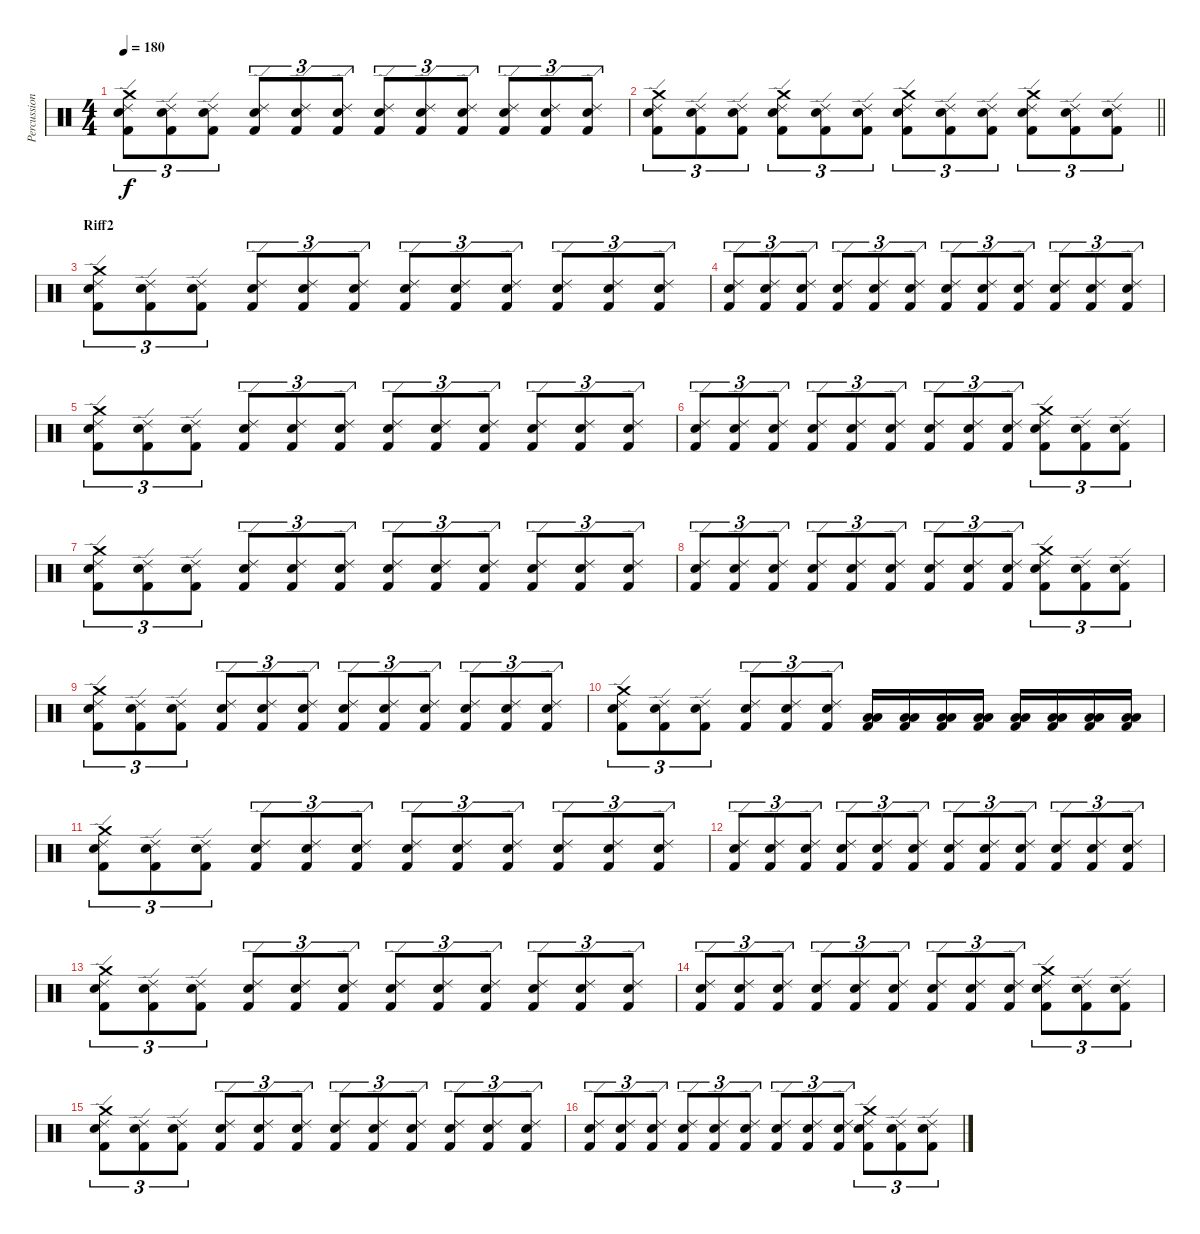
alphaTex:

\track ("Percussioni" "Percussion") {instrument percussion}
\staff {score}
\articulation defaults
\ts (4 4)
\tempo 180
\clef neutral
\ks c
("Crash medium (hit)" "Ride (edge) 2" "Snare (hit) 2" "Kick (hit) 2").8{tu (3 2) dy f} ("Ride (edge) 2" "Snare (hit) 2" "Kick (hit) 2").8{tu (3 2)} ("Ride (edge) 2" "Snare (hit) 2" "Kick (hit) 2").8{tu (3 2)} ("Ride (edge) 2" "Snare (hit) 2" "Kick (hit) 2").8{tu (3 2)} ("Ride (edge) 2" "Snare (hit) 2" "Kick (hit) 2").8{tu (3 2)} ("Ride (edge) 2" "Snare (hit) 2" "Kick (hit) 2").8{tu (3 2)} ("Ride (edge) 2" "Snare (hit) 2" "Kick (hit) 2").8{tu (3 2)} ("Ride (edge) 2" "Snare (hit) 2" "Kick (hit) 2").8{tu (3 2)} ("Ride (edge) 2" "Snare (hit) 2" "Kick (hit) 2").8{tu (3 2)} ("Ride (edge) 2" "Snare (hit) 2" "Kick (hit) 2").8{tu (3 2)} ("Ride (edge) 2" "Snare (hit) 2" "Kick (hit) 2").8{tu (3 2)} ("Ride (edge) 2" "Snare (hit) 2" "Kick (hit) 2").8{tu (3 2)} |
\barLineRight lightlight
("Crash medium (hit)" "Ride (edge) 2" "Snare (hit) 2" "Kick (hit) 2").8{tu (3 2)} ("Ride (edge) 2" "Snare (hit) 2" "Kick (hit) 2").8{tu (3 2)} ("Ride (edge) 2" "Snare (hit) 2" "Kick (hit) 2").8{tu (3 2)} ("Crash medium (hit)" "Ride (edge) 2" "Snare (hit) 2" "Kick (hit) 2").8{tu (3 2)} ("Ride (edge) 2" "Snare (hit) 2" "Kick (hit) 2").8{tu (3 2)} ("Ride (edge) 2" "Snare (hit) 2" "Kick (hit) 2").8{tu (3 2)} ("Crash medium (hit)" "Ride (edge) 2" "Snare (hit) 2" "Kick (hit) 2").8{tu (3 2)} ("Ride (edge) 2" "Snare (hit) 2" "Kick (hit) 2").8{tu (3 2)} ("Ride (edge) 2" "Snare (hit) 2" "Kick (hit) 2").8{tu (3 2)} ("Crash medium (hit)" "Ride (edge) 2" "Snare (hit) 2" "Kick (hit) 2").8{tu (3 2)} ("Ride (edge) 2" "Snare (hit) 2" "Kick (hit) 2").8{tu (3 2)} ("Ride (edge) 2" "Snare (hit) 2" "Kick (hit) 2").8{tu (3 2)} |
\section ("" "Riff2")
("Crash medium (hit)" "Ride (edge) 2" "Snare (hit) 2" "Kick (hit) 2").8{tu (3 2)} ("Ride (edge) 2" "Snare (hit) 2" "Kick (hit) 2").8{tu (3 2)} ("Ride (edge) 2" "Snare (hit) 2" "Kick (hit) 2").8{tu (3 2)} ("Ride (edge) 2" "Snare (hit) 2" "Kick (hit) 2").8{tu (3 2)} ("Ride (edge) 2" "Snare (hit) 2" "Kick (hit) 2").8{tu (3 2)} ("Ride (edge) 2" "Snare (hit) 2" "Kick (hit) 2").8{tu (3 2)} ("Ride (edge) 2" "Snare (hit) 2" "Kick (hit) 2").8{tu (3 2)} ("Ride (edge) 2" "Snare (hit) 2" "Kick (hit) 2").8{tu (3 2)} ("Ride (edge) 2" "Snare (hit) 2" "Kick (hit) 2").8{tu (3 2)} ("Ride (edge) 2" "Snare (hit) 2" "Kick (hit) 2").8{tu (3 2)} ("Ride (edge) 2" "Snare (hit) 2" "Kick (hit) 2").8{tu (3 2)} ("Ride (edge) 2" "Snare (hit) 2" "Kick (hit) 2").8{tu (3 2)} |
("Ride (edge) 2" "Snare (hit) 2" "Kick (hit) 2").8{tu (3 2)} ("Ride (edge) 2" "Snare (hit) 2" "Kick (hit) 2").8{tu (3 2)} ("Ride (edge) 2" "Snare (hit) 2" "Kick (hit) 2").8{tu (3 2)} ("Ride (edge) 2" "Snare (hit) 2" "Kick (hit) 2").8{tu (3 2)} ("Ride (edge) 2" "Snare (hit) 2" "Kick (hit) 2").8{tu (3 2)} ("Ride (edge) 2" "Snare (hit) 2" "Kick (hit) 2").8{tu (3 2)} ("Ride (edge) 2" "Snare (hit) 2" "Kick (hit) 2").8{tu (3 2)} ("Ride (edge) 2" "Snare (hit) 2" "Kick (hit) 2").8{tu (3 2)} ("Ride (edge) 2" "Snare (hit) 2" "Kick (hit) 2").8{tu (3 2)} ("Ride (edge) 2" "Snare (hit) 2" "Kick (hit) 2").8{tu (3 2)} ("Ride (edge) 2" "Snare (hit) 2" "Kick (hit) 2").8{tu (3 2)} ("Ride (edge) 2" "Snare (hit) 2" "Kick (hit) 2").8{tu (3 2)} |
("Crash medium (hit)" "Ride (edge) 2" "Snare (hit) 2" "Kick (hit) 2").8{tu (3 2)} ("Ride (edge) 2" "Snare (hit) 2" "Kick (hit) 2").8{tu (3 2)} ("Ride (edge) 2" "Snare (hit) 2" "Kick (hit) 2").8{tu (3 2)} ("Ride (edge) 2" "Snare (hit) 2" "Kick (hit) 2").8{tu (3 2)} ("Ride (edge) 2" "Snare (hit) 2" "Kick (hit) 2").8{tu (3 2)} ("Ride (edge) 2" "Snare (hit) 2" "Kick (hit) 2").8{tu (3 2)} ("Ride (edge) 2" "Snare (hit) 2" "Kick (hit) 2").8{tu (3 2)} ("Ride (edge) 2" "Snare (hit) 2" "Kick (hit) 2").8{tu (3 2)} ("Ride (edge) 2" "Snare (hit) 2" "Kick (hit) 2").8{tu (3 2)} ("Ride (edge) 2" "Snare (hit) 2" "Kick (hit) 2").8{tu (3 2)} ("Ride (edge) 2" "Snare (hit) 2" "Kick (hit) 2").8{tu (3 2)} ("Ride (edge) 2" "Snare (hit) 2" "Kick (hit) 2").8{tu (3 2)} |
("Ride (edge) 2" "Snare (hit) 2" "Kick (hit) 2").8{tu (3 2)} ("Ride (edge) 2" "Snare (hit) 2" "Kick (hit) 2").8{tu (3 2)} ("Ride (edge) 2" "Snare (hit) 2" "Kick (hit) 2").8{tu (3 2)} ("Ride (edge) 2" "Snare (hit) 2" "Kick (hit) 2").8{tu (3 2)} ("Ride (edge) 2" "Snare (hit) 2" "Kick (hit) 2").8{tu (3 2)} ("Ride (edge) 2" "Snare (hit) 2" "Kick (hit) 2").8{tu (3 2)} ("Ride (edge) 2" "Snare (hit) 2" "Kick (hit) 2").8{tu (3 2)} ("Ride (edge) 2" "Snare (hit) 2" "Kick (hit) 2").8{tu (3 2)} ("Ride (edge) 2" "Snare (hit) 2" "Kick (hit) 2").8{tu (3 2)} ("Crash medium (hit)" "Ride (edge) 2" "Snare (hit) 2" "Kick (hit) 2").8{tu (3 2)} ("Ride (edge) 2" "Snare (hit) 2" "Kick (hit) 2").8{tu (3 2)} ("Ride (edge) 2" "Snare (hit) 2" "Kick (hit) 2").8{tu (3 2)} |
("Crash medium (hit)" "Ride (edge) 2" "Snare (hit) 2" "Kick (hit) 2").8{tu (3 2)} ("Ride (edge) 2" "Snare (hit) 2" "Kick (hit) 2").8{tu (3 2)} ("Ride (edge) 2" "Snare (hit) 2" "Kick (hit) 2").8{tu (3 2)} ("Ride (edge) 2" "Snare (hit) 2" "Kick (hit) 2").8{tu (3 2)} ("Ride (edge) 2" "Snare (hit) 2" "Kick (hit) 2").8{tu (3 2)} ("Ride (edge) 2" "Snare (hit) 2" "Kick (hit) 2").8{tu (3 2)} ("Ride (edge) 2" "Snare (hit) 2" "Kick (hit) 2").8{tu (3 2)} ("Ride (edge) 2" "Snare (hit) 2" "Kick (hit) 2").8{tu (3 2)} ("Ride (edge) 2" "Snare (hit) 2" "Kick (hit) 2").8{tu (3 2)} ("Ride (edge) 2" "Snare (hit) 2" "Kick (hit) 2").8{tu (3 2)} ("Ride (edge) 2" "Snare (hit) 2" "Kick (hit) 2").8{tu (3 2)} ("Ride (edge) 2" "Snare (hit) 2" "Kick (hit) 2").8{tu (3 2)} |
("Ride (edge) 2" "Snare (hit) 2" "Kick (hit) 2").8{tu (3 2)} ("Ride (edge) 2" "Snare (hit) 2" "Kick (hit) 2").8{tu (3 2)} ("Ride (edge) 2" "Snare (hit) 2" "Kick (hit) 2").8{tu (3 2)} ("Ride (edge) 2" "Snare (hit) 2" "Kick (hit) 2").8{tu (3 2)} ("Ride (edge) 2" "Snare (hit) 2" "Kick (hit) 2").8{tu (3 2)} ("Ride (edge) 2" "Snare (hit) 2" "Kick (hit) 2").8{tu (3 2)} ("Ride (edge) 2" "Snare (hit) 2" "Kick (hit) 2").8{tu (3 2)} ("Ride (edge) 2" "Snare (hit) 2" "Kick (hit) 2").8{tu (3 2)} ("Ride (edge) 2" "Snare (hit) 2" "Kick (hit) 2").8{tu (3 2)} ("Crash medium (hit)" "Ride (edge) 2" "Snare (hit) 2" "Kick (hit) 2").8{tu (3 2)} ("Ride (edge) 2" "Snare (hit) 2" "Kick (hit) 2").8{tu (3 2)} ("Ride (edge) 2" "Snare (hit) 2" "Kick (hit) 2").8{tu (3 2)} |
("Crash medium (hit)" "Ride (edge) 2" "Snare (hit) 2" "Kick (hit) 2").8{tu (3 2)} ("Ride (edge) 2" "Snare (hit) 2" "Kick (hit) 2").8{tu (3 2)} ("Ride (edge) 2" "Snare (hit) 2" "Kick (hit) 2").8{tu (3 2)} ("Ride (edge) 2" "Snare (hit) 2" "Kick (hit) 2").8{tu (3 2)} ("Ride (edge) 2" "Snare (hit) 2" "Kick (hit) 2").8{tu (3 2)} ("Ride (edge) 2" "Snare (hit) 2" "Kick (hit) 2").8{tu (3 2)} ("Ride (edge) 2" "Snare (hit) 2" "Kick (hit) 2").8{tu (3 2)} ("Ride (edge) 2" "Snare (hit) 2" "Kick (hit) 2").8{tu (3 2)} ("Ride (edge) 2" "Snare (hit) 2" "Kick (hit) 2").8{tu (3 2)} ("Ride (edge) 2" "Snare (hit) 2" "Kick (hit) 2").8{tu (3 2)} ("Ride (edge) 2" "Snare (hit) 2" "Kick (hit) 2").8{tu (3 2)} ("Ride (edge) 2" "Snare (hit) 2" "Kick (hit) 2").8{tu (3 2)} |
("Crash medium (hit)" "Ride (edge) 2" "Snare (hit) 2" "Kick (hit) 2").8{tu (3 2)} ("Ride (edge) 2" "Snare (hit) 2" "Kick (hit) 2").8{tu (3 2)} ("Ride (edge) 2" "Snare (hit) 2" "Kick (hit) 2").8{tu (3 2)} ("Ride (edge) 2" "Snare (hit) 2" "Kick (hit) 2").8{tu (3 2)} ("Ride (edge) 2" "Snare (hit) 2" "Kick (hit) 2").8{tu (3 2)} ("Ride (edge) 2" "Snare (hit) 2" "Kick (hit) 2").8{tu (3 2)} ("Low Tom (hit)" "Low Floor Tom (hit)" "Kick (hit) 2").16 ("Low Tom (hit)" "Low Floor Tom (hit)" "Kick (hit) 2").16 ("Low Tom (hit)" "Low Floor Tom (hit)" "Kick (hit) 2").16 ("Low Tom (hit)" "Low Floor Tom (hit)" "Kick (hit) 2").16 ("Low Tom (hit)" "Low Floor Tom (hit)" "Kick (hit) 2").16 ("Low Tom (hit)" "Low Floor Tom (hit)" "Kick (hit) 2").16 ("Low Tom (hit)" "Low Floor Tom (hit)" "Kick (hit) 2").16 ("Low Tom (hit)" "Low Floor Tom (hit)" "Kick (hit) 2").16 |
("Crash medium (hit)" "Ride (edge) 2" "Snare (hit) 2" "Kick (hit) 2").8{tu (3 2)} ("Ride (edge) 2" "Snare (hit) 2" "Kick (hit) 2").8{tu (3 2)} ("Ride (edge) 2" "Snare (hit) 2" "Kick (hit) 2").8{tu (3 2)} ("Ride (edge) 2" "Snare (hit) 2" "Kick (hit) 2").8{tu (3 2)} ("Ride (edge) 2" "Snare (hit) 2" "Kick (hit) 2").8{tu (3 2)} ("Ride (edge) 2" "Snare (hit) 2" "Kick (hit) 2").8{tu (3 2)} ("Ride (edge) 2" "Snare (hit) 2" "Kick (hit) 2").8{tu (3 2)} ("Ride (edge) 2" "Snare (hit) 2" "Kick (hit) 2").8{tu (3 2)} ("Ride (edge) 2" "Snare (hit) 2" "Kick (hit) 2").8{tu (3 2)} ("Ride (edge) 2" "Snare (hit) 2" "Kick (hit) 2").8{tu (3 2)} ("Ride (edge) 2" "Snare (hit) 2" "Kick (hit) 2").8{tu (3 2)} ("Ride (edge) 2" "Snare (hit) 2" "Kick (hit) 2").8{tu (3 2)} |
("Ride (edge) 2" "Snare (hit) 2" "Kick (hit) 2").8{tu (3 2)} ("Ride (edge) 2" "Snare (hit) 2" "Kick (hit) 2").8{tu (3 2)} ("Ride (edge) 2" "Snare (hit) 2" "Kick (hit) 2").8{tu (3 2)} ("Ride (edge) 2" "Snare (hit) 2" "Kick (hit) 2").8{tu (3 2)} ("Ride (edge) 2" "Snare (hit) 2" "Kick (hit) 2").8{tu (3 2)} ("Ride (edge) 2" "Snare (hit) 2" "Kick (hit) 2").8{tu (3 2)} ("Ride (edge) 2" "Snare (hit) 2" "Kick (hit) 2").8{tu (3 2)} ("Ride (edge) 2" "Snare (hit) 2" "Kick (hit) 2").8{tu (3 2)} ("Ride (edge) 2" "Snare (hit) 2" "Kick (hit) 2").8{tu (3 2)} ("Ride (edge) 2" "Snare (hit) 2" "Kick (hit) 2").8{tu (3 2)} ("Ride (edge) 2" "Snare (hit) 2" "Kick (hit) 2").8{tu (3 2)} ("Ride (edge) 2" "Snare (hit) 2" "Kick (hit) 2").8{tu (3 2)} |
("Crash medium (hit)" "Ride (edge) 2" "Snare (hit) 2" "Kick (hit) 2").8{tu (3 2)} ("Ride (edge) 2" "Snare (hit) 2" "Kick (hit) 2").8{tu (3 2)} ("Ride (edge) 2" "Snare (hit) 2" "Kick (hit) 2").8{tu (3 2)} ("Ride (edge) 2" "Snare (hit) 2" "Kick (hit) 2").8{tu (3 2)} ("Ride (edge) 2" "Snare (hit) 2" "Kick (hit) 2").8{tu (3 2)} ("Ride (edge) 2" "Snare (hit) 2" "Kick (hit) 2").8{tu (3 2)} ("Ride (edge) 2" "Snare (hit) 2" "Kick (hit) 2").8{tu (3 2)} ("Ride (edge) 2" "Snare (hit) 2" "Kick (hit) 2").8{tu (3 2)} ("Ride (edge) 2" "Snare (hit) 2" "Kick (hit) 2").8{tu (3 2)} ("Ride (edge) 2" "Snare (hit) 2" "Kick (hit) 2").8{tu (3 2)} ("Ride (edge) 2" "Snare (hit) 2" "Kick (hit) 2").8{tu (3 2)} ("Ride (edge) 2" "Snare (hit) 2" "Kick (hit) 2").8{tu (3 2)} |
("Ride (edge) 2" "Snare (hit) 2" "Kick (hit) 2").8{tu (3 2)} ("Ride (edge) 2" "Snare (hit) 2" "Kick (hit) 2").8{tu (3 2)} ("Ride (edge) 2" "Snare (hit) 2" "Kick (hit) 2").8{tu (3 2)} ("Ride (edge) 2" "Snare (hit) 2" "Kick (hit) 2").8{tu (3 2)} ("Ride (edge) 2" "Snare (hit) 2" "Kick (hit) 2").8{tu (3 2)} ("Ride (edge) 2" "Snare (hit) 2" "Kick (hit) 2").8{tu (3 2)} ("Ride (edge) 2" "Snare (hit) 2" "Kick (hit) 2").8{tu (3 2)} ("Ride (edge) 2" "Snare (hit) 2" "Kick (hit) 2").8{tu (3 2)} ("Ride (edge) 2" "Snare (hit) 2" "Kick (hit) 2").8{tu (3 2)} ("Crash medium (hit)" "Ride (edge) 2" "Snare (hit) 2" "Kick (hit) 2").8{tu (3 2)} ("Ride (edge) 2" "Snare (hit) 2" "Kick (hit) 2").8{tu (3 2)} ("Ride (edge) 2" "Snare (hit) 2" "Kick (hit) 2").8{tu (3 2)} |
("Crash medium (hit)" "Ride (edge) 2" "Snare (hit) 2" "Kick (hit) 2").8{tu (3 2)} ("Ride (edge) 2" "Snare (hit) 2" "Kick (hit) 2").8{tu (3 2)} ("Ride (edge) 2" "Snare (hit) 2" "Kick (hit) 2").8{tu (3 2)} ("Ride (edge) 2" "Snare (hit) 2" "Kick (hit) 2").8{tu (3 2)} ("Ride (edge) 2" "Snare (hit) 2" "Kick (hit) 2").8{tu (3 2)} ("Ride (edge) 2" "Snare (hit) 2" "Kick (hit) 2").8{tu (3 2)} ("Ride (edge) 2" "Snare (hit) 2" "Kick (hit) 2").8{tu (3 2)} ("Ride (edge) 2" "Snare (hit) 2" "Kick (hit) 2").8{tu (3 2)} ("Ride (edge) 2" "Snare (hit) 2" "Kick (hit) 2").8{tu (3 2)} ("Ride (edge) 2" "Snare (hit) 2" "Kick (hit) 2").8{tu (3 2)} ("Ride (edge) 2" "Snare (hit) 2" "Kick (hit) 2").8{tu (3 2)} ("Ride (edge) 2" "Snare (hit) 2" "Kick (hit) 2").8{tu (3 2)} |
("Ride (edge) 2" "Snare (hit) 2" "Kick (hit) 2").8{tu (3 2)} ("Ride (edge) 2" "Snare (hit) 2" "Kick (hit) 2").8{tu (3 2)} ("Ride (edge) 2" "Snare (hit) 2" "Kick (hit) 2").8{tu (3 2)} ("Ride (edge) 2" "Snare (hit) 2" "Kick (hit) 2").8{tu (3 2)} ("Ride (edge) 2" "Snare (hit) 2" "Kick (hit) 2").8{tu (3 2)} ("Ride (edge) 2" "Snare (hit) 2" "Kick (hit) 2").8{tu (3 2)} ("Ride (edge) 2" "Snare (hit) 2" "Kick (hit) 2").8{tu (3 2)} ("Ride (edge) 2" "Snare (hit) 2" "Kick (hit) 2").8{tu (3 2)} ("Ride (edge) 2" "Snare (hit) 2" "Kick (hit) 2").8{tu (3 2)} ("Crash medium (hit)" "Ride (edge) 2" "Snare (hit) 2" "Kick (hit) 2").8{tu (3 2)} ("Ride (edge) 2" "Snare (hit) 2" "Kick (hit) 2").8{tu (3 2)} ("Ride (edge) 2" "Snare (hit) 2" "Kick (hit) 2").8{tu (3 2)}
